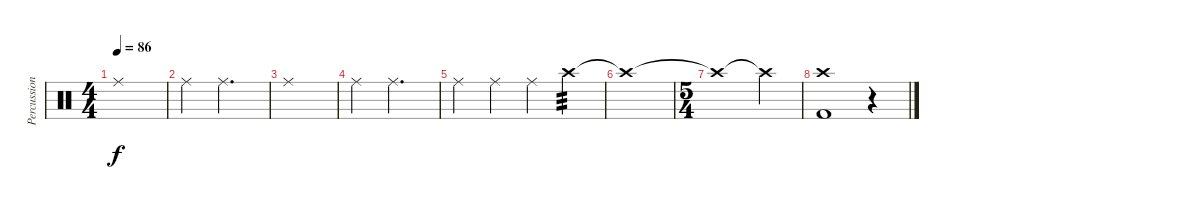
\track ("Percussion" "Percussion") {instrument percussion}
\staff {score}
\articulation defaults
\ts (4 4)
\tempo 86
\clef neutral
\ks c "Ride (middle)".1{dy f}
|
"Ride (middle)".4 "Ride (middle)".2{d} |
"Ride (middle)".1 |
"Ride (middle)".4 "Ride (middle)".2{d} |
"Ride (middle)".4 "Ride (middle)".4 "Ride (middle)".4 "Crash high (hit)".4{tp 3} |
"Crash high (hit)"{t}.1 |
\ts (5 4)
"Crash high (hit)"{t}.1 "Crash high (hit)"{t}.4 |
("Crash high (hit)" "Kick (hit) 2").1 r.4
